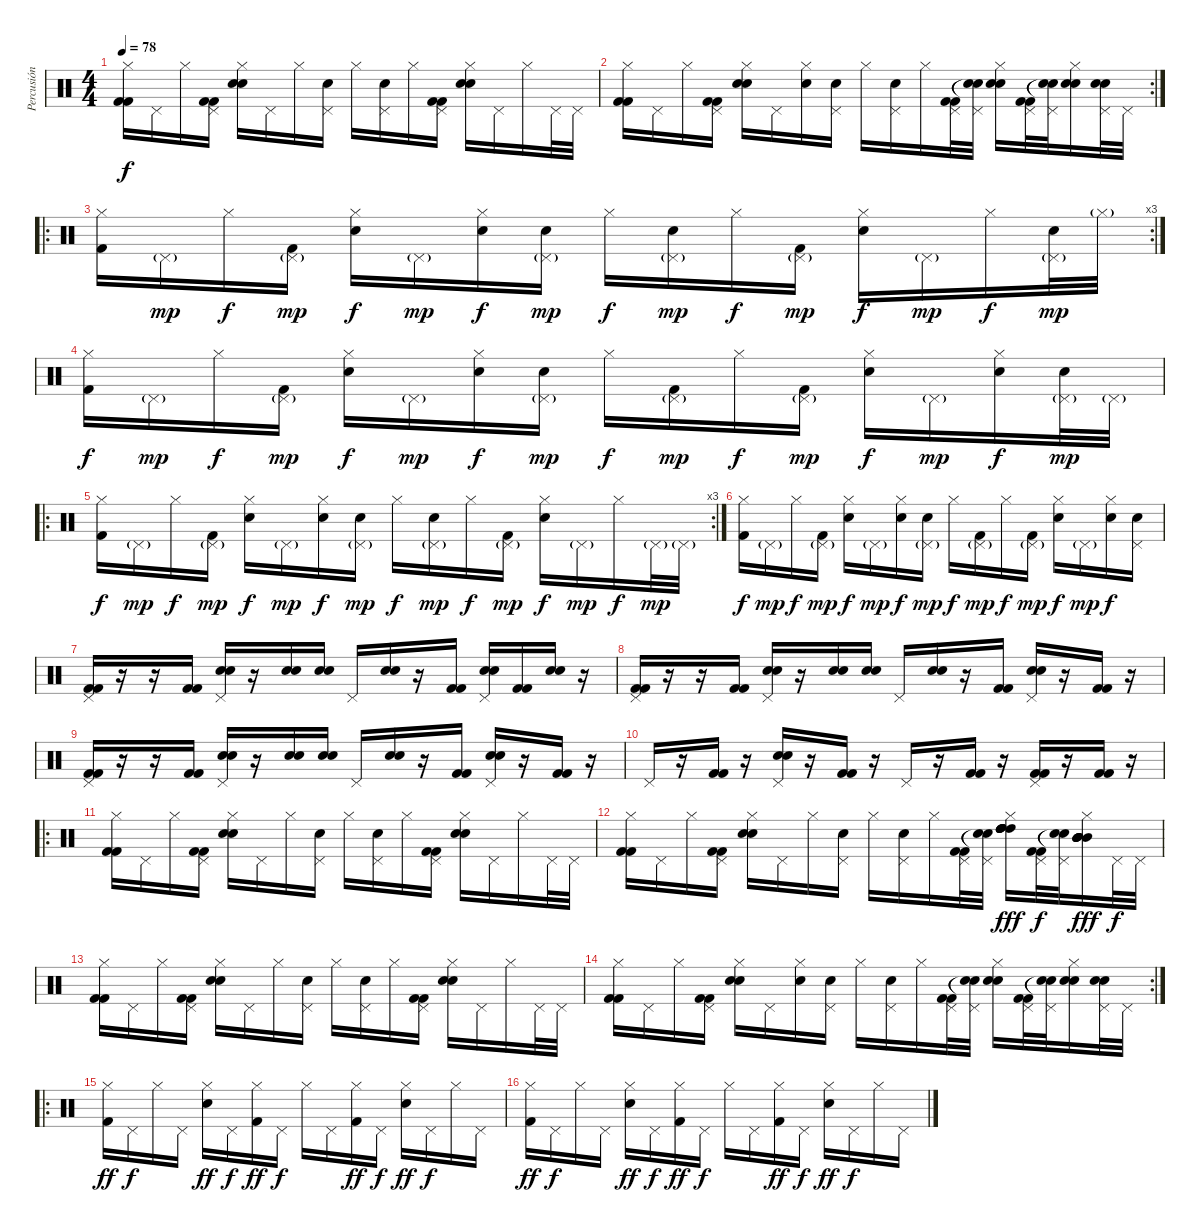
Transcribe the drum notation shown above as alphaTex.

\track ("Percusión" "Percusión") {instrument percussion}
\staff {score}
\articulation defaults
\ts (4 4)
\tempo 78
\clef neutral
\ks c
("Hi-Hat (closed)" "Kick (hit) 2" "Kick (hit) 2").16{dy f} "Pedal Hi-Hat (hit)".16 "Hi-Hat (closed)".16 ("Pedal Hi-Hat (hit)" "Kick (hit) 2" "Kick (hit) 2").16 ("Hi-Hat (closed)" "Electric Snare (hit)" "Electric Snare (hit)").16 "Pedal Hi-Hat (hit)".16 "Hi-Hat (closed)".16 ("Pedal Hi-Hat (hit)" "Electric Snare (hit)").16 "Hi-Hat (closed)".16 ("Pedal Hi-Hat (hit)" "Electric Snare (hit)").16 "Hi-Hat (closed)".16 ("Pedal Hi-Hat (hit)" "Kick (hit) 2" "Kick (hit) 2").16 ("Hi-Hat (closed)" "Electric Snare (hit)" "Electric Snare (hit)").16 "Pedal Hi-Hat (hit)".16 "Hi-Hat (closed)".16 "Pedal Hi-Hat (hit)".32 "Pedal Hi-Hat (hit)".32 |
\rc 2
("Hi-Hat (closed)" "Kick (hit) 2" "Kick (hit) 2").16 "Pedal Hi-Hat (hit)".16 "Hi-Hat (closed)".16 ("Pedal Hi-Hat (hit)" "Kick (hit) 2" "Kick (hit) 2").16 ("Hi-Hat (closed)" "Electric Snare (hit)" "Electric Snare (hit)").16 "Pedal Hi-Hat (hit)".16 ("Hi-Hat (closed)" "Electric Snare (hit)").16 ("Pedal Hi-Hat (hit)" "Electric Snare (hit)").16 "Hi-Hat (closed)".16 ("Pedal Hi-Hat (hit)" "Electric Snare (hit)").16 "Hi-Hat (closed)".16 ("Pedal Hi-Hat (hit)" "Kick (hit) 2" "Kick (hit) 2").32 ("Pedal Hi-Hat (hit)" "Snare (hit)"{t} "Snare (hit)"{t}).32 ("Hi-Hat (closed)" "Electric Snare (hit)" "Electric Snare (hit)").16 ("Pedal Hi-Hat (hit)" "Kick (hit) 2" "Kick (hit) 2").32 ("Pedal Hi-Hat (hit)" "Snare (hit)"{t} "Snare (hit)"{t}).32 ("Hi-Hat (closed)" "Electric Snare (hit)" "Electric Snare (hit)").16 ("Pedal Hi-Hat (hit)" "Electric Snare (hit)" "Electric Snare (hit)").32 "Pedal Hi-Hat (hit)".32 |
\ro
\rc 3
("Hi-Hat (closed)" "Kick (hit) 2").16 "Pedal Hi-Hat (hit)"{g}.16{dy mp} "Hi-Hat (closed)".16{dy f} ("Pedal Hi-Hat (hit)"{g} "Kick (hit) 2").16{dy mp} ("Hi-Hat (closed)" "Electric Snare (hit)").16{dy f} "Pedal Hi-Hat (hit)"{g}.16{dy mp} ("Hi-Hat (closed)" "Electric Snare (hit)").16{dy f} ("Pedal Hi-Hat (hit)"{g} "Electric Snare (hit)").16{dy mp} "Hi-Hat (closed)".16{dy f} ("Pedal Hi-Hat (hit)"{g} "Electric Snare (hit)").16{dy mp} "Hi-Hat (closed)".16{dy f} ("Pedal Hi-Hat (hit)"{g} "Kick (hit) 2").16{dy mp} ("Hi-Hat (closed)" "Electric Snare (hit)").16{dy f} "Pedal Hi-Hat (hit)"{g}.16{dy mp} "Hi-Hat (closed)".16{dy f} ("Pedal Hi-Hat (hit)"{g} "Electric Snare (hit)").32{dy mp} "Hi-Hat (closed)"{g}.32 |
("Hi-Hat (closed)" "Kick (hit) 2").16{dy f} "Pedal Hi-Hat (hit)"{g}.16{dy mp} "Hi-Hat (closed)".16{dy f} ("Pedal Hi-Hat (hit)"{g} "Kick (hit) 2").16{dy mp} ("Hi-Hat (closed)" "Electric Snare (hit)").16{dy f} "Pedal Hi-Hat (hit)"{g}.16{dy mp} ("Hi-Hat (closed)" "Electric Snare (hit)").16{dy f} ("Pedal Hi-Hat (hit)"{g} "Electric Snare (hit)").16{dy mp} "Hi-Hat (closed)".16{dy f} ("Pedal Hi-Hat (hit)"{g} "Kick (hit) 2").16{dy mp} "Hi-Hat (closed)".16{dy f} ("Pedal Hi-Hat (hit)"{g} "Kick (hit) 2").16{dy mp} ("Hi-Hat (closed)" "Electric Snare (hit)").16{dy f} "Pedal Hi-Hat (hit)"{g}.16{dy mp} ("Hi-Hat (closed)" "Electric Snare (hit)").16{dy f} ("Pedal Hi-Hat (hit)"{g} "Electric Snare (hit)").32{dy mp} "Pedal Hi-Hat (hit)"{g}.32 |
\ro
\rc 3
("Hi-Hat (closed)" "Kick (hit) 2").16{dy f} "Pedal Hi-Hat (hit)"{g}.16{dy mp} "Hi-Hat (closed)".16{dy f} ("Pedal Hi-Hat (hit)"{g} "Kick (hit) 2").16{dy mp} ("Hi-Hat (closed)" "Electric Snare (hit)").16{dy f} "Pedal Hi-Hat (hit)"{g}.16{dy mp} ("Hi-Hat (closed)" "Electric Snare (hit)").16{dy f} ("Pedal Hi-Hat (hit)"{g} "Electric Snare (hit)").16{dy mp} "Hi-Hat (closed)".16{dy f} ("Pedal Hi-Hat (hit)"{g} "Electric Snare (hit)").16{dy mp} "Hi-Hat (closed)".16{dy f} ("Pedal Hi-Hat (hit)"{g} "Kick (hit) 2").16{dy mp} ("Hi-Hat (closed)" "Electric Snare (hit)").16{dy f} "Pedal Hi-Hat (hit)"{g}.16{dy mp} "Hi-Hat (closed)".16{dy f} "Pedal Hi-Hat (hit)"{g}.32{dy mp} "Pedal Hi-Hat (hit)"{g}.32 |
("Hi-Hat (closed)" "Kick (hit) 2").16{dy f} "Pedal Hi-Hat (hit)"{g}.16{dy mp} "Hi-Hat (closed)".16{dy f} ("Pedal Hi-Hat (hit)"{g} "Kick (hit) 2").16{dy mp} ("Hi-Hat (closed)" "Electric Snare (hit)").16{dy f} "Pedal Hi-Hat (hit)"{g}.16{dy mp} ("Hi-Hat (closed)" "Electric Snare (hit)").16{dy f} ("Pedal Hi-Hat (hit)"{g} "Electric Snare (hit)").16{dy mp} "Hi-Hat (closed)".16{dy f} ("Pedal Hi-Hat (hit)"{g} "Kick (hit) 2").16{dy mp} "Hi-Hat (closed)".16{dy f} ("Pedal Hi-Hat (hit)"{g} "Kick (hit) 2").16{dy mp} ("Hi-Hat (closed)" "Electric Snare (hit)").16{dy f} "Pedal Hi-Hat (hit)"{g}.16{dy mp} ("Hi-Hat (closed)" "Electric Snare (hit)").16{dy f} ("Pedal Hi-Hat (hit)" "Electric Snare (hit)").16 |
("Pedal Hi-Hat (hit)" "Kick (hit) 2" "Kick (hit) 2").16 r.16 r.16 ("Kick (hit) 2" "Kick (hit) 2").16 ("Pedal Hi-Hat (hit)" "Electric Snare (hit)" "Electric Snare (hit)").16 r.16 ("Electric Snare (hit)" "Electric Snare (hit)").16 ("Electric Snare (hit)" "Electric Snare (hit)").16 "Pedal Hi-Hat (hit)".16 ("Electric Snare (hit)" "Electric Snare (hit)").16 r.16 ("Kick (hit) 2" "Kick (hit) 2").16 ("Pedal Hi-Hat (hit)" "Electric Snare (hit)" "Electric Snare (hit)").16 ("Kick (hit) 2" "Kick (hit) 2").16 ("Electric Snare (hit)" "Electric Snare (hit)").16 r.16 |
("Pedal Hi-Hat (hit)" "Kick (hit) 2" "Kick (hit) 2").16 r.16 r.16 ("Kick (hit) 2" "Kick (hit) 2").16 ("Pedal Hi-Hat (hit)" "Electric Snare (hit)" "Electric Snare (hit)").16 r.16 ("Electric Snare (hit)" "Electric Snare (hit)").16 ("Electric Snare (hit)" "Electric Snare (hit)").16 "Pedal Hi-Hat (hit)".16 ("Electric Snare (hit)" "Electric Snare (hit)").16 r.16 ("Kick (hit) 2" "Kick (hit) 2").16 ("Pedal Hi-Hat (hit)" "Electric Snare (hit)" "Electric Snare (hit)").16 r.16 ("Kick (hit) 2" "Kick (hit) 2").16 r.16 |
("Pedal Hi-Hat (hit)" "Kick (hit) 2" "Kick (hit) 2").16 r.16 r.16 ("Kick (hit) 2" "Kick (hit) 2").16 ("Pedal Hi-Hat (hit)" "Electric Snare (hit)" "Electric Snare (hit)").16 r.16 ("Electric Snare (hit)" "Electric Snare (hit)").16 ("Electric Snare (hit)" "Electric Snare (hit)").16 "Pedal Hi-Hat (hit)".16 ("Electric Snare (hit)" "Electric Snare (hit)").16 r.16 ("Kick (hit) 2" "Kick (hit) 2").16 ("Pedal Hi-Hat (hit)" "Electric Snare (hit)" "Electric Snare (hit)").16 r.16 ("Kick (hit) 2" "Kick (hit) 2").16 r.16 |
"Pedal Hi-Hat (hit)".16 r.16 ("Kick (hit) 2" "Kick (hit) 2").16 r.16 ("Pedal Hi-Hat (hit)" "Electric Snare (hit)" "Electric Snare (hit)").16 r.16 ("Kick (hit) 2" "Kick (hit) 2").16 r.16 "Pedal Hi-Hat (hit)".16 r.16 ("Kick (hit) 2" "Kick (hit) 2").16 r.16 ("Pedal Hi-Hat (hit)" "Kick (hit) 2" "Kick (hit) 2").16 r.16 ("Kick (hit) 2" "Kick (hit) 2").16 r.16 |
\ro
("Hi-Hat (closed)" "Kick (hit) 2" "Kick (hit) 2").16 "Pedal Hi-Hat (hit)".16 "Hi-Hat (closed)".16 ("Pedal Hi-Hat (hit)" "Kick (hit) 2" "Kick (hit) 2").16 ("Hi-Hat (closed)" "Electric Snare (hit)" "Electric Snare (hit)").16 "Pedal Hi-Hat (hit)".16 "Hi-Hat (closed)".16 ("Pedal Hi-Hat (hit)" "Electric Snare (hit)").16 "Hi-Hat (closed)".16 ("Pedal Hi-Hat (hit)" "Electric Snare (hit)").16 "Hi-Hat (closed)".16 ("Pedal Hi-Hat (hit)" "Kick (hit) 2" "Kick (hit) 2").16 ("Hi-Hat (closed)" "Electric Snare (hit)" "Electric Snare (hit)").16 "Pedal Hi-Hat (hit)".16 "Hi-Hat (closed)".16 "Pedal Hi-Hat (hit)".32 "Pedal Hi-Hat (hit)".32 |
("Hi-Hat (closed)" "Kick (hit) 2" "Kick (hit) 2").16 "Pedal Hi-Hat (hit)".16 "Hi-Hat (closed)".16 ("Pedal Hi-Hat (hit)" "Kick (hit) 2" "Kick (hit) 2").16 ("Hi-Hat (closed)" "Electric Snare (hit)" "Electric Snare (hit)").16 "Pedal Hi-Hat (hit)".16 "Hi-Hat (closed)".16 ("Pedal Hi-Hat (hit)" "Electric Snare (hit)").16 "Hi-Hat (closed)".16 ("Pedal Hi-Hat (hit)" "Electric Snare (hit)").16 "Hi-Hat (closed)".16 ("Pedal Hi-Hat (hit)" "Kick (hit) 2" "Kick (hit) 2").32 ("Pedal Hi-Hat (hit)" "Snare (hit)"{t} "Snare (hit)"{t}).32 ("Hi-Hat (closed)" "High Tom (hit)" "High Tom (hit)" "High Tom (hit)" "High Tom (hit)" "High Tom (hit)").16{dy fff} ("Pedal Hi-Hat (hit)" "Kick (hit) 2" "Kick (hit) 2").32{dy f} ("Pedal Hi-Hat (hit)" "Snare (hit)"{t} "Snare (hit)"{t}).32 ("Hi-Hat (closed)" "Mid Tom (hit)" "Mid Tom (hit)" "Mid Tom (hit)" "Mid Tom (hit)" "Mid Tom (hit)").16{dy fff} "Pedal Hi-Hat (hit)".32{dy f} "Pedal Hi-Hat (hit)".32 |
("Hi-Hat (closed)" "Kick (hit) 2" "Kick (hit) 2").16 "Pedal Hi-Hat (hit)".16 "Hi-Hat (closed)".16 ("Pedal Hi-Hat (hit)" "Kick (hit) 2" "Kick (hit) 2").16 ("Hi-Hat (closed)" "Electric Snare (hit)" "Electric Snare (hit)").16 "Pedal Hi-Hat (hit)".16 "Hi-Hat (closed)".16 ("Pedal Hi-Hat (hit)" "Electric Snare (hit)").16 "Hi-Hat (closed)".16 ("Pedal Hi-Hat (hit)" "Electric Snare (hit)").16 "Hi-Hat (closed)".16 ("Pedal Hi-Hat (hit)" "Kick (hit) 2" "Kick (hit) 2").16 ("Hi-Hat (closed)" "Electric Snare (hit)" "Electric Snare (hit)").16 "Pedal Hi-Hat (hit)".16 "Hi-Hat (closed)".16 "Pedal Hi-Hat (hit)".32 "Pedal Hi-Hat (hit)".32 |
\rc 2
("Hi-Hat (closed)" "Kick (hit) 2" "Kick (hit) 2").16 "Pedal Hi-Hat (hit)".16 "Hi-Hat (closed)".16 ("Pedal Hi-Hat (hit)" "Kick (hit) 2" "Kick (hit) 2").16 ("Hi-Hat (closed)" "Electric Snare (hit)" "Electric Snare (hit)").16 "Pedal Hi-Hat (hit)".16 ("Hi-Hat (closed)" "Electric Snare (hit)").16 ("Pedal Hi-Hat (hit)" "Electric Snare (hit)").16 "Hi-Hat (closed)".16 ("Pedal Hi-Hat (hit)" "Electric Snare (hit)").16 "Hi-Hat (closed)".16 ("Pedal Hi-Hat (hit)" "Kick (hit) 2" "Kick (hit) 2").32 ("Pedal Hi-Hat (hit)" "Snare (hit)"{t} "Snare (hit)"{t}).32 ("Hi-Hat (closed)" "Electric Snare (hit)" "Electric Snare (hit)").16 ("Pedal Hi-Hat (hit)" "Kick (hit) 2" "Kick (hit) 2").32 ("Pedal Hi-Hat (hit)" "Snare (hit)"{t} "Snare (hit)"{t}).32 ("Hi-Hat (closed)" "Electric Snare (hit)" "Electric Snare (hit)").16 ("Pedal Hi-Hat (hit)" "Electric Snare (hit)" "Electric Snare (hit)").32 "Pedal Hi-Hat (hit)".32 |
\ro
("Hi-Hat (closed)" "Kick (hit) 2").16{dy ff} "Pedal Hi-Hat (hit)".16{dy f} "Hi-Hat (closed)".16 "Pedal Hi-Hat (hit)".16 ("Hi-Hat (closed)" "Electric Snare (hit)").16{dy ff} "Pedal Hi-Hat (hit)".16{dy f} ("Hi-Hat (closed)" "Kick (hit) 2").16{dy ff} "Pedal Hi-Hat (hit)".16{dy f} "Hi-Hat (closed)".16 "Pedal Hi-Hat (hit)".16 ("Hi-Hat (closed)" "Kick (hit) 2").16{dy ff} "Pedal Hi-Hat (hit)".16{dy f} ("Hi-Hat (closed)" "Electric Snare (hit)").16{dy ff} "Pedal Hi-Hat (hit)".16{dy f} "Hi-Hat (closed)".16 "Pedal Hi-Hat (hit)".16 |
("Hi-Hat (closed)" "Kick (hit) 2").16{dy ff} "Pedal Hi-Hat (hit)".16{dy f} "Hi-Hat (closed)".16 "Pedal Hi-Hat (hit)".16 ("Hi-Hat (closed)" "Electric Snare (hit)").16{dy ff} "Pedal Hi-Hat (hit)".16{dy f} ("Hi-Hat (closed)" "Kick (hit) 2").16{dy ff} "Pedal Hi-Hat (hit)".16{dy f} "Hi-Hat (closed)".16 "Pedal Hi-Hat (hit)".16 ("Hi-Hat (closed)" "Kick (hit) 2").16{dy ff} "Pedal Hi-Hat (hit)".16{dy f} ("Hi-Hat (closed)" "Electric Snare (hit)").16{dy ff} "Pedal Hi-Hat (hit)".16{dy f} "Hi-Hat (closed)".16 "Pedal Hi-Hat (hit)".16
